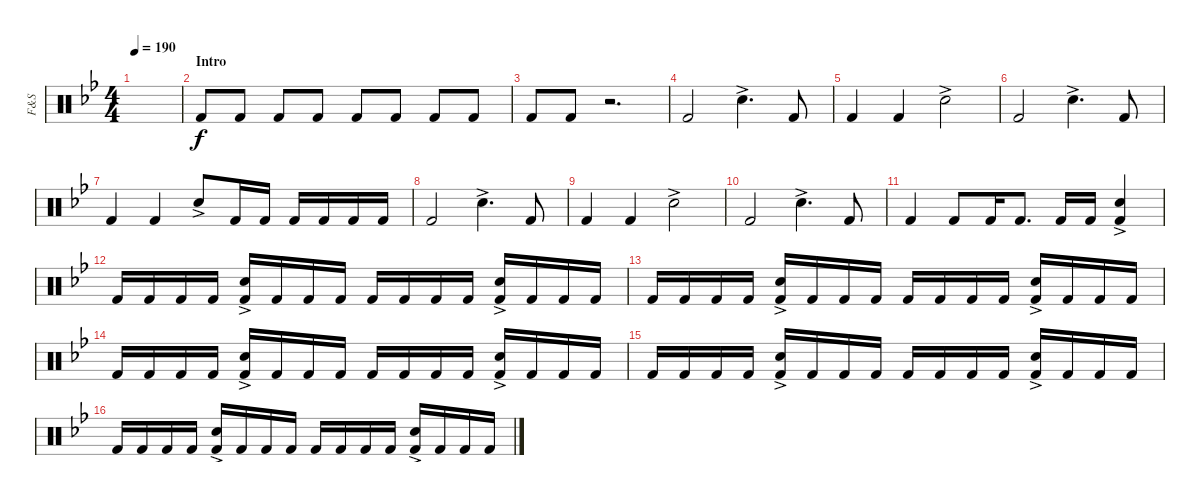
\track ("F&S" "F&S") {instrument percussion}
\staff {score}
\articulation defaults
\ts (4 4)
\tempo 190
\clef neutral
\ks bb
|
\section ("" "Intro")
"Kick (hit) 2".8 "Kick (hit) 2".8 "Kick (hit) 2".8 "Kick (hit) 2".8 "Kick (hit) 2".8 "Kick (hit) 2".8 "Kick (hit) 2".8 "Kick (hit) 2".8 |
"Kick (hit) 2".8 "Kick (hit) 2".8 r.2{d} |
"Kick (hit) 2".2 "Snare (hit) 2"{ac}.4{d} "Kick (hit) 2".8 |
"Kick (hit) 2".4 "Kick (hit) 2".4 "Snare (hit) 2"{ac}.2 |
"Kick (hit) 2".2 "Snare (hit) 2"{ac}.4{d} "Kick (hit) 2".8 |
"Kick (hit) 2".4 "Kick (hit) 2".4 "Snare (hit) 2"{ac}.8 "Kick (hit) 2".16 "Kick (hit) 2".16 "Kick (hit) 2".16 "Kick (hit) 2".16 "Kick (hit) 2".16 "Kick (hit) 2".16 |
"Kick (hit) 2".2 "Snare (hit) 2"{ac}.4{d} "Kick (hit) 2".8 |
"Kick (hit) 2".4 "Kick (hit) 2".4 "Snare (hit) 2"{ac}.2 |
"Kick (hit) 2".2 "Snare (hit) 2"{ac}.4{d} "Kick (hit) 2".8 |
"Kick (hit) 2".4 "Kick (hit) 2".8 "Kick (hit) 2".16 "Kick (hit) 2".8{d} "Kick (hit) 2".16 "Kick (hit) 2".16 ("Kick (hit) 2" "Snare (hit) 2"{ac}).4 |
"Kick (hit) 2".16 "Kick (hit) 2".16 "Kick (hit) 2".16 "Kick (hit) 2".16 ("Kick (hit) 2" "Snare (hit) 2"{ac}).16 "Kick (hit) 2".16 "Kick (hit) 2".16 "Kick (hit) 2".16 "Kick (hit) 2".16 "Kick (hit) 2".16 "Kick (hit) 2".16 "Kick (hit) 2".16 ("Kick (hit) 2" "Snare (hit) 2"{ac}).16 "Kick (hit) 2".16 "Kick (hit) 2".16 "Kick (hit) 2".16 |
"Kick (hit) 2".16 "Kick (hit) 2".16 "Kick (hit) 2".16 "Kick (hit) 2".16 ("Kick (hit) 2" "Snare (hit) 2"{ac}).16 "Kick (hit) 2".16 "Kick (hit) 2".16 "Kick (hit) 2".16 "Kick (hit) 2".16 "Kick (hit) 2".16 "Kick (hit) 2".16 "Kick (hit) 2".16 ("Kick (hit) 2" "Snare (hit) 2"{ac}).16 "Kick (hit) 2".16 "Kick (hit) 2".16 "Kick (hit) 2".16 |
"Kick (hit) 2".16 "Kick (hit) 2".16 "Kick (hit) 2".16 "Kick (hit) 2".16 ("Kick (hit) 2" "Snare (hit) 2"{ac}).16 "Kick (hit) 2".16 "Kick (hit) 2".16 "Kick (hit) 2".16 "Kick (hit) 2".16 "Kick (hit) 2".16 "Kick (hit) 2".16 "Kick (hit) 2".16 ("Kick (hit) 2" "Snare (hit) 2"{ac}).16 "Kick (hit) 2".16 "Kick (hit) 2".16 "Kick (hit) 2".16 |
"Kick (hit) 2".16 "Kick (hit) 2".16 "Kick (hit) 2".16 "Kick (hit) 2".16 ("Kick (hit) 2" "Snare (hit) 2"{ac}).16 "Kick (hit) 2".16 "Kick (hit) 2".16 "Kick (hit) 2".16 "Kick (hit) 2".16 "Kick (hit) 2".16 "Kick (hit) 2".16 "Kick (hit) 2".16 ("Kick (hit) 2" "Snare (hit) 2"{ac}).16 "Kick (hit) 2".16 "Kick (hit) 2".16 "Kick (hit) 2".16 |
"Kick (hit) 2".16 "Kick (hit) 2".16 "Kick (hit) 2".16 "Kick (hit) 2".16 ("Kick (hit) 2" "Snare (hit) 2"{ac}).16 "Kick (hit) 2".16 "Kick (hit) 2".16 "Kick (hit) 2".16 "Kick (hit) 2".16 "Kick (hit) 2".16 "Kick (hit) 2".16 "Kick (hit) 2".16 ("Kick (hit) 2" "Snare (hit) 2"{ac}).16 "Kick (hit) 2".16 "Kick (hit) 2".16 "Kick (hit) 2".16
